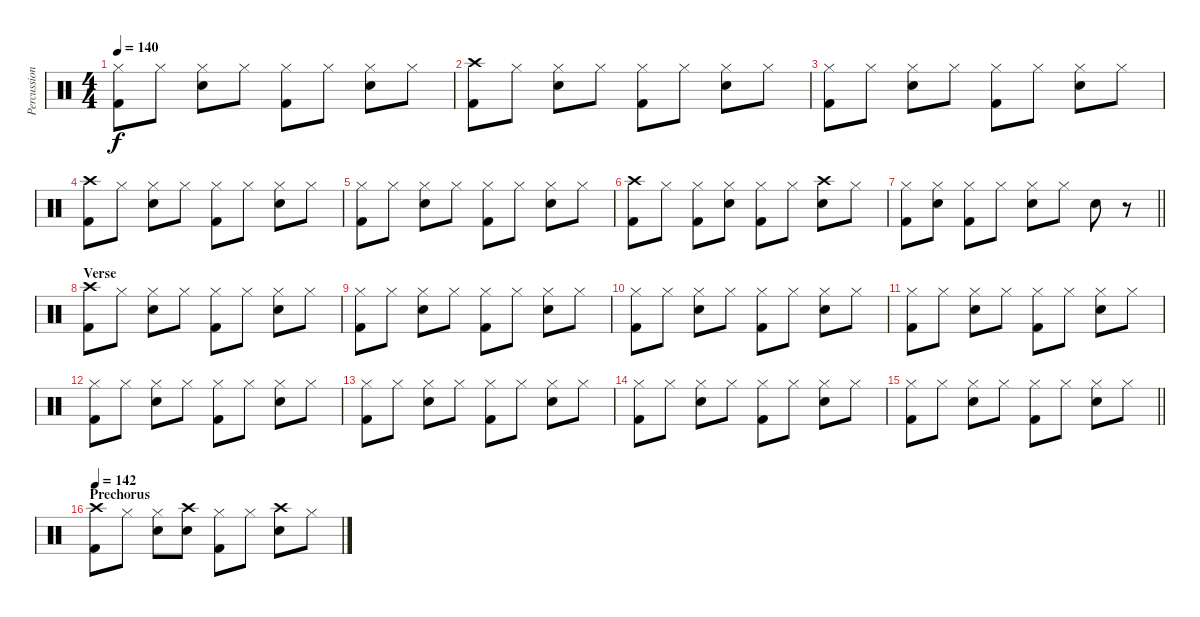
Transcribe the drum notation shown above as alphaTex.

\track ("Percussion" "Percussion") {instrument percussion}
\staff {score}
\articulation defaults
\ts (4 4)
\tempo 140
\clef neutral
\ks c
("Hi-Hat (closed)" "Kick (hit) 2").8{dy f} "Hi-Hat (closed)".8 ("Hi-Hat (closed)" "Electric Snare (hit)").8 "Hi-Hat (closed)".8 ("Hi-Hat (closed)" "Kick (hit) 2").8 "Hi-Hat (closed)".8 ("Hi-Hat (closed)" "Electric Snare (hit)").8 "Hi-Hat (closed)".8 |
("Crash high (hit)" "Kick (hit) 2").8 "Hi-Hat (closed)".8 ("Hi-Hat (closed)" "Electric Snare (hit)").8 "Hi-Hat (closed)".8 ("Hi-Hat (closed)" "Kick (hit) 2").8 "Hi-Hat (closed)".8 ("Hi-Hat (closed)" "Electric Snare (hit)").8 "Hi-Hat (closed)".8 |
("Hi-Hat (closed)" "Kick (hit) 2").8 "Hi-Hat (closed)".8 ("Hi-Hat (closed)" "Electric Snare (hit)").8 "Hi-Hat (closed)".8 ("Hi-Hat (closed)" "Kick (hit) 2").8 "Hi-Hat (closed)".8 ("Hi-Hat (closed)" "Electric Snare (hit)").8 "Hi-Hat (closed)".8 |
("Crash high (hit)" "Kick (hit) 2").8 "Hi-Hat (closed)".8 ("Hi-Hat (closed)" "Electric Snare (hit)").8 "Hi-Hat (closed)".8 ("Hi-Hat (closed)" "Kick (hit) 2").8 "Hi-Hat (closed)".8 ("Hi-Hat (closed)" "Electric Snare (hit)").8 "Hi-Hat (closed)".8 |
("Hi-Hat (closed)" "Kick (hit) 2").8 "Hi-Hat (closed)".8 ("Hi-Hat (closed)" "Electric Snare (hit)").8 "Hi-Hat (closed)".8 ("Hi-Hat (closed)" "Kick (hit) 2").8 "Hi-Hat (closed)".8 ("Hi-Hat (closed)" "Electric Snare (hit)").8 "Hi-Hat (closed)".8 |
("Crash high (hit)" "Kick (hit) 2").8 "Hi-Hat (closed)".8 ("Hi-Hat (closed)" "Kick (hit) 2").8 ("Hi-Hat (closed)" "Electric Snare (hit)").8 ("Hi-Hat (closed)" "Kick (hit) 2").8 "Hi-Hat (closed)".8 ("Crash high (hit)" "Electric Snare (hit)").8 "Hi-Hat (closed)".8 |
\barLineRight lightlight
("Hi-Hat (closed)" "Kick (hit) 2").8 ("Hi-Hat (closed)" "Electric Snare (hit)").8 ("Hi-Hat (closed)" "Kick (hit) 2").8 "Hi-Hat (closed)".8 ("Hi-Hat (closed)" "Electric Snare (hit)").8 "Hi-Hat (closed)".8 "Electric Snare (hit)".8 r.8 |
\section ("" "Verse")
("Crash high (hit)" "Kick (hit) 2").8 "Hi-Hat (closed)".8 ("Hi-Hat (closed)" "Electric Snare (hit)").8 "Hi-Hat (closed)".8 ("Hi-Hat (closed)" "Kick (hit) 2").8 "Hi-Hat (closed)".8 ("Hi-Hat (closed)" "Electric Snare (hit)").8 "Hi-Hat (closed)".8 |
("Hi-Hat (closed)" "Kick (hit) 2").8 "Hi-Hat (closed)".8 ("Hi-Hat (closed)" "Electric Snare (hit)").8 "Hi-Hat (closed)".8 ("Hi-Hat (closed)" "Kick (hit) 2").8 "Hi-Hat (closed)".8 ("Hi-Hat (closed)" "Electric Snare (hit)").8 "Hi-Hat (closed)".8 |
("Hi-Hat (closed)" "Kick (hit) 2").8 "Hi-Hat (closed)".8 ("Hi-Hat (closed)" "Electric Snare (hit)").8 "Hi-Hat (closed)".8 ("Hi-Hat (closed)" "Kick (hit) 2").8 "Hi-Hat (closed)".8 ("Hi-Hat (closed)" "Electric Snare (hit)").8 "Hi-Hat (closed)".8 |
("Hi-Hat (closed)" "Kick (hit) 2").8 "Hi-Hat (closed)".8 ("Hi-Hat (closed)" "Electric Snare (hit)").8 "Hi-Hat (closed)".8 ("Hi-Hat (closed)" "Kick (hit) 2").8 "Hi-Hat (closed)".8 ("Hi-Hat (closed)" "Electric Snare (hit)").8 "Hi-Hat (closed)".8 |
("Hi-Hat (closed)" "Kick (hit) 2").8 "Hi-Hat (closed)".8 ("Hi-Hat (closed)" "Electric Snare (hit)").8 "Hi-Hat (closed)".8 ("Hi-Hat (closed)" "Kick (hit) 2").8 "Hi-Hat (closed)".8 ("Hi-Hat (closed)" "Electric Snare (hit)").8 "Hi-Hat (closed)".8 |
("Hi-Hat (closed)" "Kick (hit) 2").8 "Hi-Hat (closed)".8 ("Hi-Hat (closed)" "Electric Snare (hit)").8 "Hi-Hat (closed)".8 ("Hi-Hat (closed)" "Kick (hit) 2").8 "Hi-Hat (closed)".8 ("Hi-Hat (closed)" "Electric Snare (hit)").8 "Hi-Hat (closed)".8 |
("Hi-Hat (closed)" "Kick (hit) 2").8 "Hi-Hat (closed)".8 ("Hi-Hat (closed)" "Electric Snare (hit)").8 "Hi-Hat (closed)".8 ("Hi-Hat (closed)" "Kick (hit) 2").8 "Hi-Hat (closed)".8 ("Hi-Hat (closed)" "Electric Snare (hit)").8 "Hi-Hat (closed)".8 |
\barLineRight lightlight
("Hi-Hat (closed)" "Kick (hit) 2").8 "Hi-Hat (closed)".8 ("Hi-Hat (closed)" "Electric Snare (hit)").8 "Hi-Hat (closed)".8 ("Hi-Hat (closed)" "Kick (hit) 2").8 "Hi-Hat (closed)".8 ("Hi-Hat (closed)" "Electric Snare (hit)").8 "Hi-Hat (closed)".8 |
\section ("" "Prechorus")
\tempo 142
("Crash high (hit)" "Kick (hit) 2").8 "Hi-Hat (closed)".8 ("Hi-Hat (closed)" "Electric Snare (hit)").8 ("Crash high (hit)" "Electric Snare (hit)").8 ("Hi-Hat (closed)" "Kick (hit) 2").8 "Hi-Hat (closed)".8 ("Crash high (hit)" "Electric Snare (hit)").8 "Hi-Hat (closed)".8
